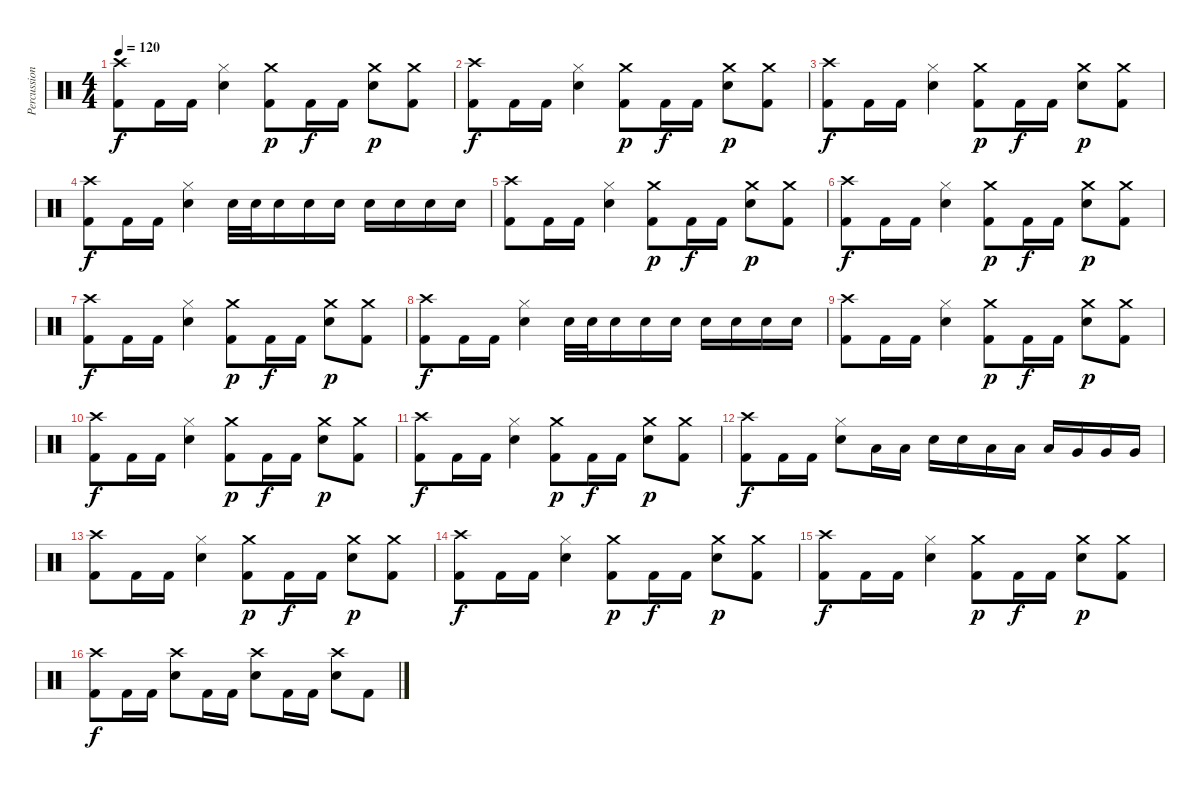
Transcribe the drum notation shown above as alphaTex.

\track ("Percussions" "Percussion") {instrument percussion}
\staff {score}
\articulation defaults
\ts (4 4)
\tempo 120
\clef neutral
\ks c
("Crash high (hit)" "Kick (hit) 2").8{dy f} "Kick (hit) 2".16 "Kick (hit) 2".16 ("Hi-Hat (closed)" "Electric Snare (hit)").4 ("Crash medium (hit)" "Kick (hit) 2").8{dy p} "Kick (hit) 2".16{dy f} "Kick (hit) 2".16 ("Crash medium (hit)" "Electric Snare (hit)").8{dy p} ("Crash medium (hit)" "Kick (hit) 2").8 |
("Crash high (hit)" "Kick (hit) 2").8{dy f} "Kick (hit) 2".16 "Kick (hit) 2".16 ("Hi-Hat (closed)" "Electric Snare (hit)").4 ("Crash medium (hit)" "Kick (hit) 2").8{dy p} "Kick (hit) 2".16{dy f} "Kick (hit) 2".16 ("Crash medium (hit)" "Electric Snare (hit)").8{dy p} ("Crash medium (hit)" "Kick (hit) 2").8 |
("Crash high (hit)" "Kick (hit) 2").8{dy f} "Kick (hit) 2".16 "Kick (hit) 2".16 ("Hi-Hat (closed)" "Electric Snare (hit)").4 ("Crash medium (hit)" "Kick (hit) 2").8{dy p} "Kick (hit) 2".16{dy f} "Kick (hit) 2".16 ("Crash medium (hit)" "Electric Snare (hit)").8{dy p} ("Crash medium (hit)" "Kick (hit) 2").8 |
("Crash high (hit)" "Kick (hit) 2").8{dy f} "Kick (hit) 2".16 "Kick (hit) 2".16 ("Hi-Hat (closed)" "Electric Snare (hit)").4 "Electric Snare (hit)".32 "Electric Snare (hit)".32 "Electric Snare (hit)".16 "Electric Snare (hit)".16 "Electric Snare (hit)".16 "Electric Snare (hit)".16 "Electric Snare (hit)".16 "Electric Snare (hit)".16 "Electric Snare (hit)".16 |
("Crash high (hit)" "Kick (hit) 2").8 "Kick (hit) 2".16 "Kick (hit) 2".16 ("Hi-Hat (closed)" "Electric Snare (hit)").4 ("Crash medium (hit)" "Kick (hit) 2").8{dy p} "Kick (hit) 2".16{dy f} "Kick (hit) 2".16 ("Crash medium (hit)" "Electric Snare (hit)").8{dy p} ("Crash medium (hit)" "Kick (hit) 2").8 |
("Crash high (hit)" "Kick (hit) 2").8{dy f} "Kick (hit) 2".16 "Kick (hit) 2".16 ("Hi-Hat (closed)" "Electric Snare (hit)").4 ("Crash medium (hit)" "Kick (hit) 2").8{dy p} "Kick (hit) 2".16{dy f} "Kick (hit) 2".16 ("Crash medium (hit)" "Electric Snare (hit)").8{dy p} ("Crash medium (hit)" "Kick (hit) 2").8 |
("Crash high (hit)" "Kick (hit) 2").8{dy f} "Kick (hit) 2".16 "Kick (hit) 2".16 ("Hi-Hat (closed)" "Electric Snare (hit)").4 ("Crash medium (hit)" "Kick (hit) 2").8{dy p} "Kick (hit) 2".16{dy f} "Kick (hit) 2".16 ("Crash medium (hit)" "Electric Snare (hit)").8{dy p} ("Crash medium (hit)" "Kick (hit) 2").8 |
("Crash high (hit)" "Kick (hit) 2").8{dy f} "Kick (hit) 2".16 "Kick (hit) 2".16 ("Hi-Hat (closed)" "Electric Snare (hit)").4 "Electric Snare (hit)".32 "Electric Snare (hit)".32 "Electric Snare (hit)".16 "Electric Snare (hit)".16 "Electric Snare (hit)".16 "Electric Snare (hit)".16 "Electric Snare (hit)".16 "Electric Snare (hit)".16 "Electric Snare (hit)".16 |
("Crash high (hit)" "Kick (hit) 2").8 "Kick (hit) 2".16 "Kick (hit) 2".16 ("Hi-Hat (closed)" "Electric Snare (hit)").4 ("Crash medium (hit)" "Kick (hit) 2").8{dy p} "Kick (hit) 2".16{dy f} "Kick (hit) 2".16 ("Crash medium (hit)" "Electric Snare (hit)").8{dy p} ("Crash medium (hit)" "Kick (hit) 2").8 |
("Crash high (hit)" "Kick (hit) 2").8{dy f} "Kick (hit) 2".16 "Kick (hit) 2".16 ("Hi-Hat (closed)" "Electric Snare (hit)").4 ("Crash medium (hit)" "Kick (hit) 2").8{dy p} "Kick (hit) 2".16{dy f} "Kick (hit) 2".16 ("Crash medium (hit)" "Electric Snare (hit)").8{dy p} ("Crash medium (hit)" "Kick (hit) 2").8 |
("Crash high (hit)" "Kick (hit) 2").8{dy f} "Kick (hit) 2".16 "Kick (hit) 2".16 ("Hi-Hat (closed)" "Electric Snare (hit)").4 ("Crash medium (hit)" "Kick (hit) 2").8{dy p} "Kick (hit) 2".16{dy f} "Kick (hit) 2".16 ("Crash medium (hit)" "Electric Snare (hit)").8{dy p} ("Crash medium (hit)" "Kick (hit) 2").8 |
("Crash high (hit)" "Kick (hit) 2").8{dy f} "Kick (hit) 2".16 "Kick (hit) 2".16 ("Hi-Hat (closed)" "Electric Snare (hit)").8 "Low Tom (hit)".16 "Low Tom (hit)".16 "Electric Snare (hit)".16 "Electric Snare (hit)".16 "Low Tom (hit)".16 "Low Tom (hit)".16 "Low Tom (hit)".16 "Very Low Tom (hit)".16 "Very Low Tom (hit)".16 "Very Low Tom (hit)".16 |
("Crash high (hit)" "Kick (hit) 2").8 "Kick (hit) 2".16 "Kick (hit) 2".16 ("Hi-Hat (closed)" "Electric Snare (hit)").4 ("Crash medium (hit)" "Kick (hit) 2").8{dy p} "Kick (hit) 2".16{dy f} "Kick (hit) 2".16 ("Crash medium (hit)" "Electric Snare (hit)").8{dy p} ("Crash medium (hit)" "Kick (hit) 2").8 |
("Crash high (hit)" "Kick (hit) 2").8{dy f} "Kick (hit) 2".16 "Kick (hit) 2".16 ("Hi-Hat (closed)" "Electric Snare (hit)").4 ("Crash medium (hit)" "Kick (hit) 2").8{dy p} "Kick (hit) 2".16{dy f} "Kick (hit) 2".16 ("Crash medium (hit)" "Electric Snare (hit)").8{dy p} ("Crash medium (hit)" "Kick (hit) 2").8 |
("Crash high (hit)" "Kick (hit) 2").8{dy f} "Kick (hit) 2".16 "Kick (hit) 2".16 ("Hi-Hat (closed)" "Electric Snare (hit)").4 ("Crash medium (hit)" "Kick (hit) 2").8{dy p} "Kick (hit) 2".16{dy f} "Kick (hit) 2".16 ("Crash medium (hit)" "Electric Snare (hit)").8{dy p} ("Crash medium (hit)" "Kick (hit) 2").8 |
("Crash high (hit)" "Kick (hit) 2").8{dy f} "Kick (hit) 2".16 "Kick (hit) 2".16 ("Crash high (hit)" "Electric Snare (hit)").8 "Kick (hit) 2".16 "Kick (hit) 2".16 ("Crash high (hit)" "Electric Snare (hit)").8 "Kick (hit) 2".16 "Kick (hit) 2".16 ("Crash high (hit)" "Electric Snare (hit)").8 "Kick (hit) 2".8
